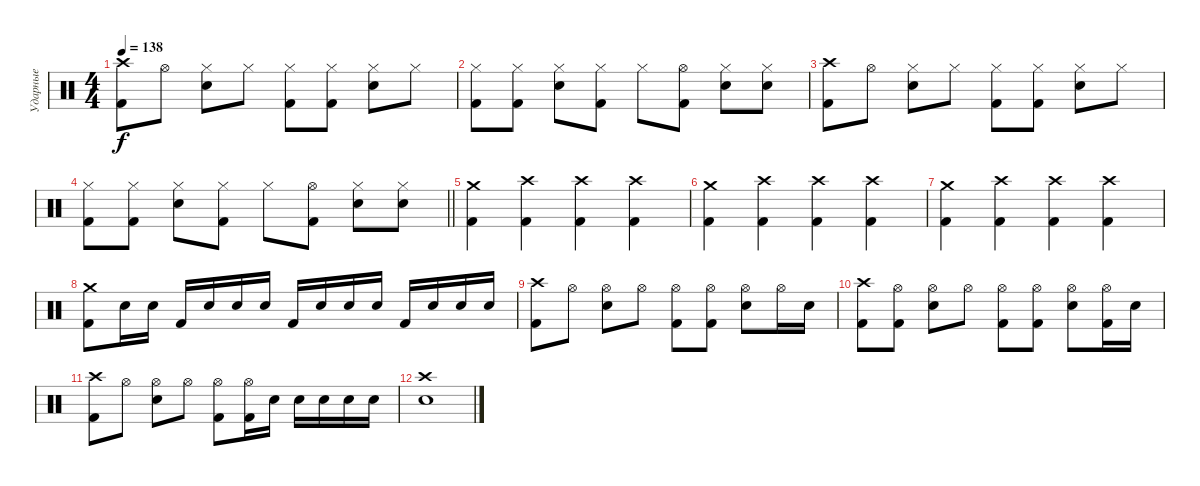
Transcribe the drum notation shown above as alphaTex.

\track ("Ударные" "Ударные") {instrument percussion}
\staff {score}
\articulation defaults
\ts (4 4)
\tempo 138
\clef neutral
\ks c
("Crash high (hit)" "Kick (hit) 2").8{dy f} "Hi-Hat (open)".8 ("Hi-Hat (closed)" "Snare (hit) 2").8 "Hi-Hat (closed)".8 ("Hi-Hat (closed)" "Kick (hit) 2").8 ("Hi-Hat (closed)" "Kick (hit) 2").8 ("Hi-Hat (closed)" "Snare (hit) 2").8 "Hi-Hat (closed)".8 |
("Hi-Hat (closed)" "Kick (hit) 2").8 ("Hi-Hat (closed)" "Kick (hit) 2").8 ("Hi-Hat (closed)" "Snare (hit) 2").8 ("Hi-Hat (closed)" "Kick (hit) 2").8 "Hi-Hat (closed)".8 ("Hi-Hat (open)" "Kick (hit) 2").8 ("Hi-Hat (closed)" "Snare (hit) 2").8 ("Hi-Hat (closed)" "Snare (hit) 2").8 |
("Crash high (hit)" "Kick (hit) 2").8 "Hi-Hat (open)".8 ("Hi-Hat (closed)" "Snare (hit) 2").8 "Hi-Hat (closed)".8 ("Hi-Hat (closed)" "Kick (hit) 2").8 ("Hi-Hat (closed)" "Kick (hit) 2").8 ("Hi-Hat (closed)" "Snare (hit) 2").8 "Hi-Hat (closed)".8 |
\barLineRight lightlight
("Hi-Hat (closed)" "Kick (hit) 2").8 ("Hi-Hat (closed)" "Kick (hit) 2").8 ("Hi-Hat (closed)" "Snare (hit) 2").8 ("Hi-Hat (closed)" "Kick (hit) 2").8 "Hi-Hat (closed)".8 ("Hi-Hat (open)" "Kick (hit) 2").8 ("Hi-Hat (closed)" "Snare (hit) 2").8 ("Hi-Hat (closed)" "Snare (hit) 2").8 |
("Kick (hit) 2" "Crash medium (hit)").4 ("Kick (hit) 2" "Crash high (hit)").4 ("Kick (hit) 2" "Crash high (hit)").4 ("Kick (hit) 2" "Crash high (hit)").4 |
("Kick (hit) 2" "Crash medium (hit)").4 ("Kick (hit) 2" "Crash high (hit)").4 ("Kick (hit) 2" "Crash high (hit)").4 ("Kick (hit) 2" "Crash high (hit)").4 |
("Kick (hit) 2" "Crash medium (hit)").4 ("Kick (hit) 2" "Crash high (hit)").4 ("Kick (hit) 2" "Crash high (hit)").4 ("Kick (hit) 2" "Crash high (hit)").4 |
("Kick (hit) 2" "Crash medium (hit)").8 "Snare (hit) 2".16 "Snare (hit) 2".16 "Kick (hit) 2".16 "Snare (hit) 2".16 "Snare (hit) 2".16 "Snare (hit) 2".16 "Kick (hit) 2".16 "Snare (hit) 2".16 "Snare (hit) 2".16 "Snare (hit) 2".16 "Kick (hit) 2".16 "Snare (hit) 2".16 "Snare (hit) 2".16 "Snare (hit) 2".16 |
("Crash high (hit)" "Kick (hit) 2").8 "Hi-Hat (open)".8 ("Hi-Hat (open)" "Snare (hit) 2").8 "Hi-Hat (open)".8 ("Hi-Hat (open)" "Kick (hit) 2").8 ("Hi-Hat (open)" "Kick (hit) 2").8 ("Hi-Hat (open)" "Snare (hit) 2").8 "Hi-Hat (open)".16 "Snare (hit) 2".16 |
("Crash high (hit)" "Kick (hit) 2").8 ("Hi-Hat (open)" "Kick (hit) 2").8 ("Hi-Hat (open)" "Snare (hit) 2").8 "Hi-Hat (open)".8 ("Hi-Hat (open)" "Kick (hit) 2").8 ("Hi-Hat (open)" "Kick (hit) 2").8 ("Hi-Hat (open)" "Snare (hit) 2").8 ("Hi-Hat (open)" "Kick (hit) 2").16 "Snare (hit) 2".16 |
("Crash high (hit)" "Kick (hit) 2").8 "Hi-Hat (open)".8 ("Hi-Hat (open)" "Snare (hit) 2").8 "Hi-Hat (open)".8 ("Hi-Hat (open)" "Kick (hit) 2").8 ("Hi-Hat (open)" "Kick (hit) 2").16 "Snare (hit) 2".16 "Snare (hit) 2".16 "Snare (hit) 2".16 "Snare (hit) 2".16 "Snare (hit) 2".16 |
("Crash high (hit)" "Snare (hit) 2").1
